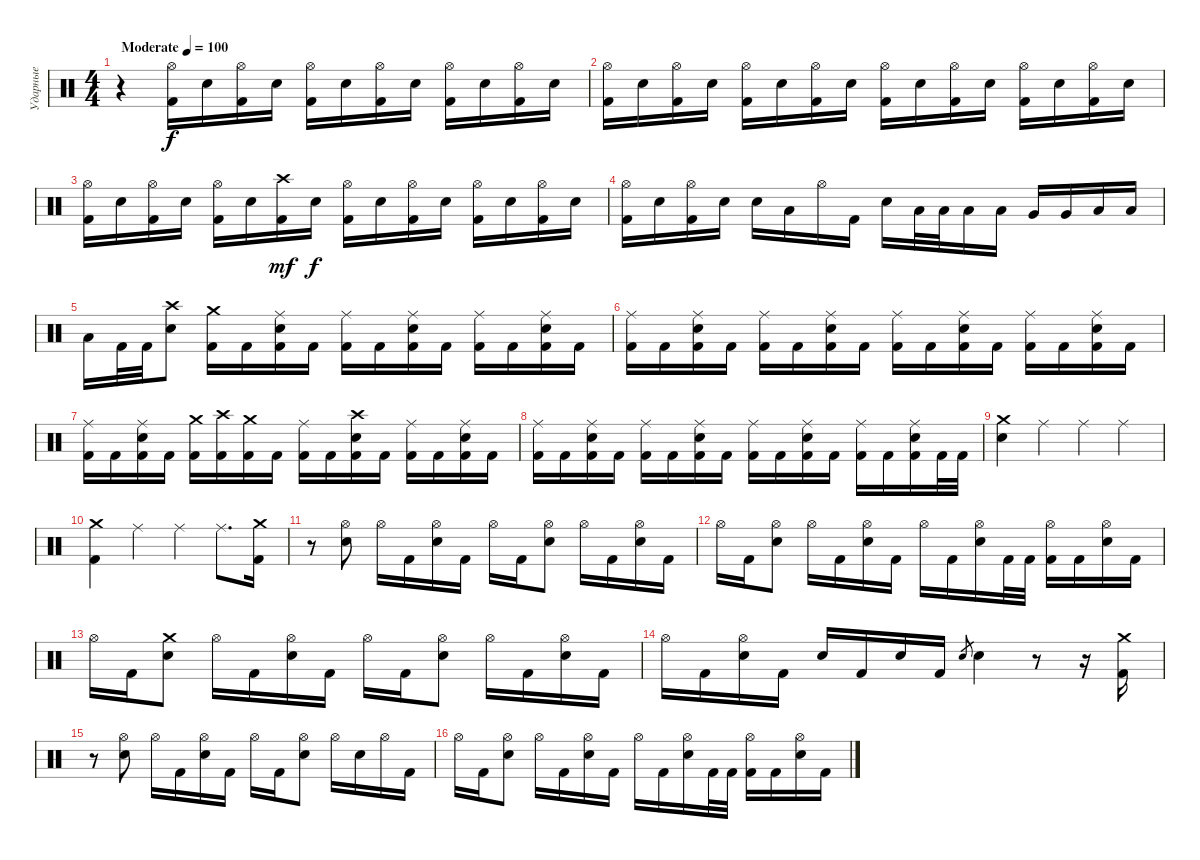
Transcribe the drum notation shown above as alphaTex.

\track ("Ударные" "Ударные") {instrument percussion}
\staff {score}
\articulation defaults
\ts (4 4)
\tempo (100 "Moderate")
\clef neutral
\ks c
r.4{dy f} ("Hi-Hat (open)" "Kick (hit) 2").16 "Snare (hit) 2".16 ("Hi-Hat (open)" "Kick (hit) 2").16 "Snare (hit) 2".16 ("Hi-Hat (open)" "Kick (hit) 2").16 "Snare (hit) 2".16 ("Hi-Hat (open)" "Kick (hit) 2").16 "Snare (hit) 2".16 ("Hi-Hat (open)" "Kick (hit) 2").16 "Snare (hit) 2".16 ("Hi-Hat (open)" "Kick (hit) 2").16 "Snare (hit) 2".16 |
("Hi-Hat (open)" "Kick (hit) 2").16 "Snare (hit) 2".16 ("Hi-Hat (open)" "Kick (hit) 2").16 "Snare (hit) 2".16 ("Hi-Hat (open)" "Kick (hit) 2").16 "Snare (hit) 2".16 ("Hi-Hat (open)" "Kick (hit) 2").16 "Snare (hit) 2".16 ("Hi-Hat (open)" "Kick (hit) 2").16 "Snare (hit) 2".16 ("Hi-Hat (open)" "Kick (hit) 2").16 "Snare (hit) 2".16 ("Hi-Hat (open)" "Kick (hit) 2").16 "Snare (hit) 2".16 ("Hi-Hat (open)" "Kick (hit) 2").16 "Snare (hit) 2".16 |
("Hi-Hat (open)" "Kick (hit) 2").16 "Snare (hit) 2".16 ("Hi-Hat (open)" "Kick (hit) 2").16 "Snare (hit) 2".16 ("Hi-Hat (open)" "Kick (hit) 2").16 "Snare (hit) 2".16 ("Crash high (hit)" "Kick (hit) 2").16{dy mf} "Snare (hit) 2".16{dy f} ("Hi-Hat (open)" "Kick (hit) 2").16 "Snare (hit) 2".16 ("Hi-Hat (open)" "Kick (hit) 2").16 "Snare (hit) 2".16 ("Hi-Hat (open)" "Kick (hit) 2").16 "Snare (hit) 2".16 ("Hi-Hat (open)" "Kick (hit) 2").16 "Snare (hit) 2".16 |
("Hi-Hat (open)" "Kick (hit) 2").16 "Snare (hit) 2".16 ("Hi-Hat (open)" "Kick (hit) 2").16 "Snare (hit) 2".16 "Snare (hit) 2".16 "Low Tom (hit)".16 "Hi-Hat (open)".16 "Kick (hit) 2".16 "Snare (hit) 2".16 "Low Tom (hit)".32 "Low Tom (hit)".32 "Low Tom (hit)".16 "Low Tom (hit)".16 "Very Low Tom (hit)".16 "Very Low Tom (hit)".16 "Low Floor Tom (hit)".16 "Low Floor Tom (hit)".16 |
"Low Floor Tom (hit)".16 "Kick (hit) 2".32 "Kick (hit) 2".32 ("Crash high (hit)" "Snare (hit) 2").8 ("Crash medium (hit)" "Kick (hit) 2").16 "Kick (hit) 2".16 ("Ride (middle)" "Kick (hit) 2" "Snare (hit) 2").16 "Kick (hit) 2".16 ("Ride (middle)" "Kick (hit) 2").16 "Kick (hit) 2".16 ("Ride (middle)" "Kick (hit) 2" "Snare (hit) 2").16 "Kick (hit) 2".16 ("Ride (middle)" "Kick (hit) 2").16 "Kick (hit) 2".16 ("Ride (middle)" "Kick (hit) 2" "Snare (hit) 2").16 "Kick (hit) 2".16 |
("Ride (middle)" "Kick (hit) 2").16 "Kick (hit) 2".16 ("Ride (middle)" "Kick (hit) 2" "Snare (hit) 2").16 "Kick (hit) 2".16 ("Ride (middle)" "Kick (hit) 2").16 "Kick (hit) 2".16 ("Ride (middle)" "Kick (hit) 2" "Snare (hit) 2").16 "Kick (hit) 2".16 ("Ride (middle)" "Kick (hit) 2").16 "Kick (hit) 2".16 ("Ride (middle)" "Kick (hit) 2" "Snare (hit) 2").16 "Kick (hit) 2".16 ("Ride (middle)" "Kick (hit) 2").16 "Kick (hit) 2".16 ("Ride (middle)" "Kick (hit) 2" "Snare (hit) 2").16 "Kick (hit) 2".16 |
("Ride (middle)" "Kick (hit) 2").16 "Kick (hit) 2".16 ("Ride (middle)" "Kick (hit) 2" "Snare (hit) 2").16 "Kick (hit) 2".16 ("Crash medium (hit)" "Kick (hit) 2").16 ("Crash high (hit)" "Kick (hit) 2").16 ("Crash medium (hit)" "Kick (hit) 2").16 "Kick (hit) 2".16 ("Ride (middle)" "Kick (hit) 2").16 "Kick (hit) 2".16 ("Crash high (hit)" "Kick (hit) 2" "Snare (hit) 2").16 "Kick (hit) 2".16 ("Ride (middle)" "Kick (hit) 2").16 "Kick (hit) 2".16 ("Ride (middle)" "Kick (hit) 2" "Snare (hit) 2").16 "Kick (hit) 2".16 |
("Ride (middle)" "Kick (hit) 2").16 "Kick (hit) 2".16 ("Ride (middle)" "Kick (hit) 2" "Snare (hit) 2").16 "Kick (hit) 2".16 ("Ride (middle)" "Kick (hit) 2").16 "Kick (hit) 2".16 ("Ride (middle)" "Kick (hit) 2" "Snare (hit) 2").16 "Kick (hit) 2".16 ("Ride (middle)" "Kick (hit) 2").16 "Kick (hit) 2".16 ("Ride (middle)" "Kick (hit) 2" "Snare (hit) 2").16 "Kick (hit) 2".16 ("Ride (middle)" "Kick (hit) 2").16 "Kick (hit) 2".16 ("Ride (middle)" "Kick (hit) 2" "Snare (hit) 2").16 "Kick (hit) 2".32 "Kick (hit) 2".32 |
("Crash medium (hit)" "Snare (hit) 2").4 "Ride (middle)".4 "Ride (middle)".4 "Ride (middle)".4 |
("Crash medium (hit)" "Kick (hit) 2").4 "Ride (middle)".4 "Ride (middle)".4 "Ride (middle)".8{d} ("Crash medium (hit)" "Kick (hit) 2").16 |
r.8 ("Hi-Hat (open)" "Snare (hit) 2").8 "Hi-Hat (open)".16 "Kick (hit) 2".16 ("Hi-Hat (open)" "Snare (hit) 2").16 "Kick (hit) 2".16 "Hi-Hat (open)".16 "Kick (hit) 2".16 ("Hi-Hat (open)" "Snare (hit) 2").8 "Hi-Hat (open)".16 "Kick (hit) 2".16 ("Hi-Hat (open)" "Snare (hit) 2").16 "Kick (hit) 2".16 |
"Hi-Hat (open)".16 "Kick (hit) 2".16 ("Hi-Hat (open)" "Snare (hit) 2").8 "Hi-Hat (open)".16 "Kick (hit) 2".16 ("Hi-Hat (open)" "Snare (hit) 2").16 "Kick (hit) 2".16 "Hi-Hat (open)".16 "Kick (hit) 2".16 ("Hi-Hat (open)" "Snare (hit) 2").16 "Kick (hit) 2".32 "Kick (hit) 2".32 ("Hi-Hat (open)" "Kick (hit) 2").16 "Kick (hit) 2".16 ("Hi-Hat (open)" "Snare (hit) 2").16 "Kick (hit) 2".16 |
"Hi-Hat (open)".16 "Kick (hit) 2".16 ("Crash medium (hit)" "Snare (hit) 2").8 "Hi-Hat (open)".16 "Kick (hit) 2".16 ("Hi-Hat (open)" "Snare (hit) 2").16 "Kick (hit) 2".16 "Hi-Hat (open)".16 "Kick (hit) 2".16 ("Hi-Hat (open)" "Snare (hit) 2").8 "Hi-Hat (open)".16 "Kick (hit) 2".16 ("Hi-Hat (open)" "Snare (hit) 2").16 "Kick (hit) 2".16 |
"Hi-Hat (open)".16 "Kick (hit) 2".16 ("Hi-Hat (open)" "Snare (hit) 2").16 "Kick (hit) 2".16 "Snare (hit) 2".16 "Kick (hit) 2".16 "Snare (hit) 2".16 "Kick (hit) 2".16 "Snare (hit) 2".8{gr} "Snare (hit) 2".4 r.8 r.16 ("Crash medium (hit)" "Kick (hit) 2").16 |
r.8 ("Hi-Hat (open)" "Snare (hit) 2").8 "Hi-Hat (open)".16 "Kick (hit) 2".16 ("Hi-Hat (open)" "Snare (hit) 2").16 "Kick (hit) 2".16 "Hi-Hat (open)".16 "Kick (hit) 2".16 ("Hi-Hat (open)" "Snare (hit) 2").8 "Hi-Hat (open)".16 "Snare (hit) 2".16 "Hi-Hat (open)".16 "Kick (hit) 2".16 |
"Hi-Hat (open)".16 "Kick (hit) 2".16 ("Hi-Hat (open)" "Snare (hit) 2").8 "Hi-Hat (open)".16 "Kick (hit) 2".16 ("Hi-Hat (open)" "Snare (hit) 2").16 "Kick (hit) 2".16 "Hi-Hat (open)".16 "Kick (hit) 2".16 ("Hi-Hat (open)" "Snare (hit) 2").16 "Kick (hit) 2".32 "Kick (hit) 2".32 ("Hi-Hat (open)" "Kick (hit) 2").16 "Kick (hit) 2".16 ("Hi-Hat (open)" "Snare (hit) 2").16 "Kick (hit) 2".16
